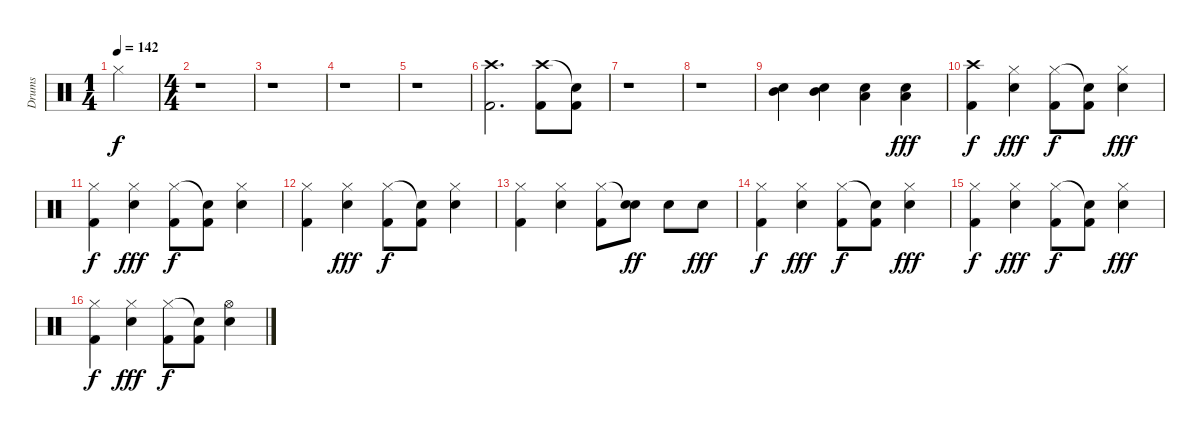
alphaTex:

\track ("Drums" "Drums") {instrument percussion}
\staff {score}
\articulation defaults
\ts (1 4)
\tempo 142
\clef neutral
\ks aminor "Hi-Hat (closed)".4{dy f}
|
\ts (4 4)
r.1 |
r.1 |
r.1 |
r.1 |
("Crash high (hit)" "Kick (hit) 2").2{d} ("Crash high (hit)" "Kick (hit) 2").8 ("Snare (hit)"{t} "Kick (hit) 2").8 |
r.1 |
r.1 |
("Mid Tom (hit)" "Snare (hit) 2").4 ("Mid Tom (hit)" "Snare (hit) 2").4 ("Low Floor Tom (hit)" "Snare (hit) 2").4 ("Low Floor Tom (hit)" "Snare (hit) 2").4{dy fff} |
("Crash high (hit)" "Kick (hit) 2").4{dy f} ("Hi-Hat (closed)" "Snare (hit) 2").4{dy fff} ("Hi-Hat (closed)" "Kick (hit) 2").8{dy f} ("Snare (hit)"{t} "Kick (hit) 2").8 ("Hi-Hat (closed)" "Snare (hit) 2").4{dy fff} |
("Hi-Hat (closed)" "Kick (hit) 2").4{dy f} ("Hi-Hat (closed)" "Snare (hit) 2").4{dy fff} ("Hi-Hat (closed)" "Kick (hit) 2").8{dy f} ("Snare (hit)"{t} "Kick (hit) 2").8 ("Hi-Hat (closed)" "Snare (hit) 2").4 |
("Hi-Hat (closed)" "Kick (hit) 2").4 ("Hi-Hat (closed)" "Snare (hit) 2").4{dy fff} ("Hi-Hat (closed)" "Kick (hit) 2").8{dy f} ("Snare (hit)"{t} "Kick (hit) 2").8 ("Hi-Hat (closed)" "Snare (hit) 2").4 |
("Hi-Hat (closed)" "Kick (hit) 2").4 ("Hi-Hat (closed)" "Snare (hit) 2").4 ("Hi-Hat (closed)" "Kick (hit) 2").8 ("Snare (hit)"{t} "Snare (hit) 2").8{dy ff} "Snare (hit) 2".8 "Snare (hit) 2".8{dy fff} |
("Hi-Hat (closed)" "Kick (hit) 2").4{dy f} ("Hi-Hat (closed)" "Snare (hit) 2").4{dy fff} ("Hi-Hat (closed)" "Kick (hit) 2").8{dy f} ("Snare (hit)"{t} "Kick (hit) 2").8 ("Hi-Hat (closed)" "Snare (hit) 2").4{dy fff} |
("Hi-Hat (closed)" "Kick (hit) 2").4{dy f} ("Hi-Hat (closed)" "Snare (hit) 2").4{dy fff} ("Hi-Hat (closed)" "Kick (hit) 2").8{dy f} ("Snare (hit)"{t} "Kick (hit) 2").8 ("Hi-Hat (closed)" "Snare (hit) 2").4{dy fff} |
("Hi-Hat (closed)" "Kick (hit) 2").4{dy f} ("Hi-Hat (closed)" "Snare (hit) 2").4{dy fff} ("Hi-Hat (closed)" "Kick (hit) 2").8{dy f} ("Snare (hit)"{t} "Kick (hit) 2").8 ("Hi-Hat (open)" "Snare (hit) 2").4
